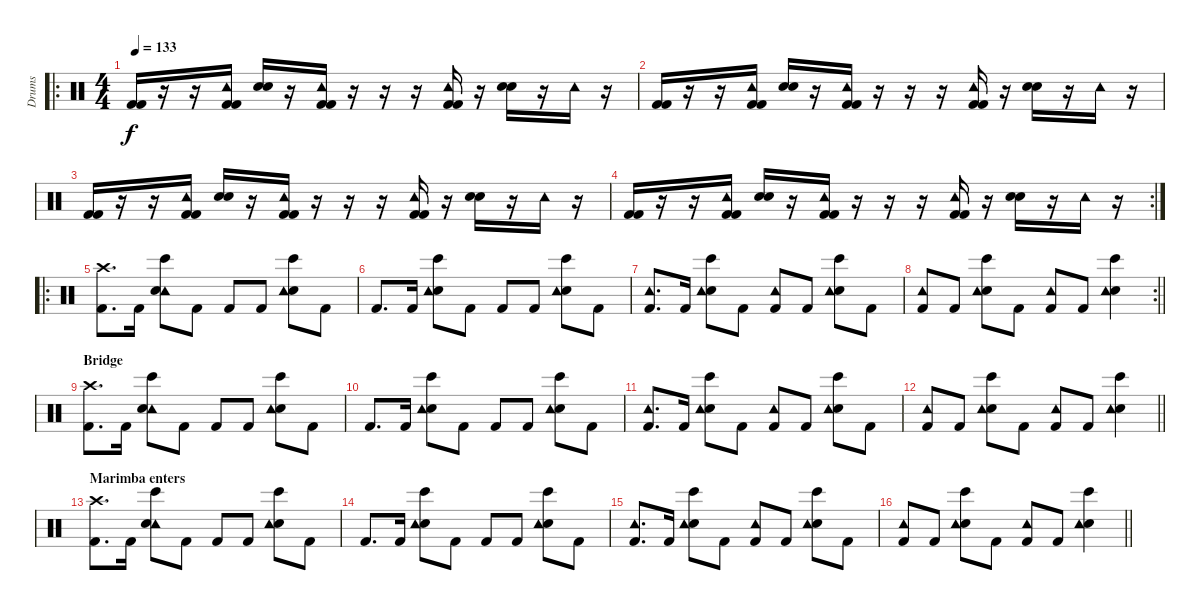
\track ("Drums" "Drums") {instrument percussion}
\staff {score}
\articulation defaults
\ro
\ts (4 4)
\tempo 133
\clef neutral
\ks c
("Kick (hit) 2" "Kick (hit) 2").16{dy f} r.16 r.16 ("Tambourine (hit)" "Kick (hit) 2" "Kick (hit) 2").16 ("Electric Snare (hit)" "Electric Snare (hit)").16 r.16 ("Tambourine (hit)" "Kick (hit) 2" "Kick (hit) 2").16 r.16 r.16 r.16 ("Tambourine (hit)" "Kick (hit) 2" "Kick (hit) 2").16 r.16 ("Electric Snare (hit)" "Electric Snare (hit)").16 r.16 "Tambourine (hit)".16 r.16 |
("Kick (hit) 2" "Kick (hit) 2").16 r.16 r.16 ("Tambourine (hit)" "Kick (hit) 2" "Kick (hit) 2").16 ("Electric Snare (hit)" "Electric Snare (hit)").16 r.16 ("Tambourine (hit)" "Kick (hit) 2" "Kick (hit) 2").16 r.16 r.16 r.16 ("Tambourine (hit)" "Kick (hit) 2" "Kick (hit) 2").16 r.16 ("Electric Snare (hit)" "Electric Snare (hit)").16 r.16 "Tambourine (hit)".16 r.16 |
("Kick (hit) 2" "Kick (hit) 2").16 r.16 r.16 ("Tambourine (hit)" "Kick (hit) 2" "Kick (hit) 2").16 ("Electric Snare (hit)" "Electric Snare (hit)").16 r.16 ("Tambourine (hit)" "Kick (hit) 2" "Kick (hit) 2").16 r.16 r.16 r.16 ("Tambourine (hit)" "Kick (hit) 2" "Kick (hit) 2").16 r.16 ("Electric Snare (hit)" "Electric Snare (hit)").16 r.16 "Tambourine (hit)".16 r.16 |
\rc 2
("Kick (hit) 2" "Kick (hit) 2").16 r.16 r.16 ("Tambourine (hit)" "Kick (hit) 2" "Kick (hit) 2").16 ("Electric Snare (hit)" "Electric Snare (hit)").16 r.16 ("Tambourine (hit)" "Kick (hit) 2" "Kick (hit) 2").16 r.16 r.16 r.16 ("Tambourine (hit)" "Kick (hit) 2" "Kick (hit) 2").16 r.16 ("Electric Snare (hit)" "Electric Snare (hit)").16 r.16 "Tambourine (hit)".16 r.16 |
\ro
("Crash high (hit)" "Kick (hit) 2").8{d} "Kick (hit) 2".16 ("Bongo High (hit)" "Tambourine (hit)" "Electric Snare (hit)").8 "Kick (hit) 2".8 "Kick (hit) 2".8 "Kick (hit) 2".8 ("Electric Snare (hit)" "Tambourine (hit)" "Bongo High (hit)").8 "Kick (hit) 2".8 |
"Kick (hit) 2".8{d} "Kick (hit) 2".16 ("Electric Snare (hit)" "Tambourine (hit)" "Bongo High (hit)").8 "Kick (hit) 2".8 "Kick (hit) 2".8 "Kick (hit) 2".8 ("Electric Snare (hit)" "Tambourine (hit)" "Bongo High (hit)").8 "Kick (hit) 2".8 |
("Tambourine (hit)" "Kick (hit) 2").8{d} "Kick (hit) 2".16 ("Electric Snare (hit)" "Tambourine (hit)" "Bongo High (hit)").8 "Kick (hit) 2".8 ("Tambourine (hit)" "Kick (hit) 2").8 "Kick (hit) 2".8 ("Electric Snare (hit)" "Tambourine (hit)" "Bongo High (hit)").8 "Kick (hit) 2".8 |
\rc 2
\barLineRight lightlight
("Tambourine (hit)" "Kick (hit) 2").8 "Kick (hit) 2".8 ("Electric Snare (hit)" "Tambourine (hit)" "Bongo High (hit)").8 "Kick (hit) 2".8 ("Tambourine (hit)" "Kick (hit) 2").8 "Kick (hit) 2".8 ("Electric Snare (hit)" "Bongo High (hit)" "Tambourine (hit)").4 |
\section ("" "Bridge")
("Crash high (hit)" "Kick (hit) 2").8{d} "Kick (hit) 2".16 ("Bongo High (hit)" "Tambourine (hit)" "Electric Snare (hit)").8 "Kick (hit) 2".8 "Kick (hit) 2".8 "Kick (hit) 2".8 ("Electric Snare (hit)" "Tambourine (hit)" "Bongo High (hit)").8 "Kick (hit) 2".8 |
"Kick (hit) 2".8{d} "Kick (hit) 2".16 ("Electric Snare (hit)" "Tambourine (hit)" "Bongo High (hit)").8 "Kick (hit) 2".8 "Kick (hit) 2".8 "Kick (hit) 2".8 ("Electric Snare (hit)" "Tambourine (hit)" "Bongo High (hit)").8 "Kick (hit) 2".8 |
("Tambourine (hit)" "Kick (hit) 2").8{d} "Kick (hit) 2".16 ("Electric Snare (hit)" "Tambourine (hit)" "Bongo High (hit)").8 "Kick (hit) 2".8 ("Tambourine (hit)" "Kick (hit) 2").8 "Kick (hit) 2".8 ("Electric Snare (hit)" "Tambourine (hit)" "Bongo High (hit)").8 "Kick (hit) 2".8 |
\barLineRight lightlight
("Tambourine (hit)" "Kick (hit) 2").8 "Kick (hit) 2".8 ("Electric Snare (hit)" "Tambourine (hit)" "Bongo High (hit)").8 "Kick (hit) 2".8 ("Tambourine (hit)" "Kick (hit) 2").8 "Kick (hit) 2".8 ("Electric Snare (hit)" "Bongo High (hit)" "Tambourine (hit)").4 |
\section ("" "Marimba enters")
("Crash high (hit)" "Kick (hit) 2").8{d} "Kick (hit) 2".16 ("Bongo High (hit)" "Tambourine (hit)" "Electric Snare (hit)").8 "Kick (hit) 2".8 "Kick (hit) 2".8 "Kick (hit) 2".8 ("Electric Snare (hit)" "Tambourine (hit)" "Bongo High (hit)").8 "Kick (hit) 2".8 |
"Kick (hit) 2".8{d} "Kick (hit) 2".16 ("Electric Snare (hit)" "Tambourine (hit)" "Bongo High (hit)").8 "Kick (hit) 2".8 "Kick (hit) 2".8 "Kick (hit) 2".8 ("Electric Snare (hit)" "Tambourine (hit)" "Bongo High (hit)").8 "Kick (hit) 2".8 |
("Tambourine (hit)" "Kick (hit) 2").8{d} "Kick (hit) 2".16 ("Electric Snare (hit)" "Tambourine (hit)" "Bongo High (hit)").8 "Kick (hit) 2".8 ("Tambourine (hit)" "Kick (hit) 2").8 "Kick (hit) 2".8 ("Electric Snare (hit)" "Tambourine (hit)" "Bongo High (hit)").8 "Kick (hit) 2".8 |
\barLineRight lightlight
("Tambourine (hit)" "Kick (hit) 2").8 "Kick (hit) 2".8 ("Electric Snare (hit)" "Tambourine (hit)" "Bongo High (hit)").8 "Kick (hit) 2".8 ("Tambourine (hit)" "Kick (hit) 2").8 "Kick (hit) 2".8 ("Electric Snare (hit)" "Bongo High (hit)" "Tambourine (hit)").4
